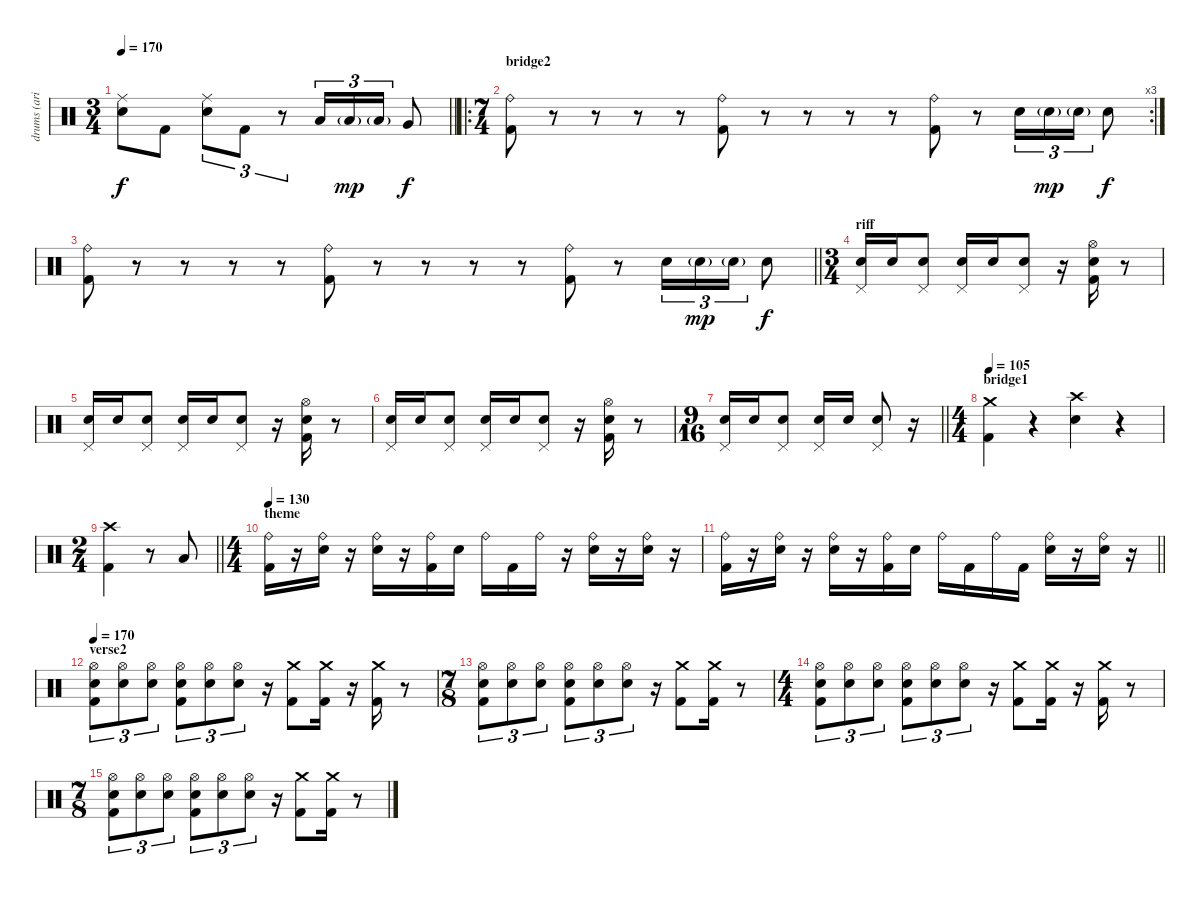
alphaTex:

\track ("drums (ari)" "drums (ari") {instrument percussion}
\staff {score}
\articulation defaults
\ts (3 4)
\tempo 170
\clef neutral
\barLineRight lightlight
\ks c
("Ride (middle)" "Electric Snare (hit)").8{dy f} "Kick (hit) 2".8 ("Ride (middle)" "Electric Snare (hit)").8{tu (3 2)} "Kick (hit) 2".8{tu (3 2)} r.8{tu (3 2)} "Low Tom (hit)".16{tu (3 2)} "Low Tom (hit)"{g}.16{tu (3 2) dy mp} "Low Tom (hit)"{g}.16{tu (3 2)} "Very Low Tom (hit)".8{dy f} |
\ro
\rc 3
\ts (7 4)
\section ("" "bridge2")
("Ride (bell)" "Kick (hit) 2").8 r.8 r.8 r.8 r.8 ("Ride (bell)" "Kick (hit) 2").8 r.8 r.8 r.8 r.8 ("Ride (bell)" "Kick (hit) 2").8 r.8 "Electric Snare (hit)".16{tu (3 2)} "Electric Snare (hit)"{g}.16{tu (3 2) dy mp} "Electric Snare (hit)"{g}.16{tu (3 2)} "Electric Snare (hit)".8{dy f} |
\barLineRight lightlight
("Ride (bell)" "Kick (hit) 2").8 r.8 r.8 r.8 r.8 ("Ride (bell)" "Kick (hit) 2").8 r.8 r.8 r.8 r.8 ("Ride (bell)" "Kick (hit) 2").8 r.8 "Electric Snare (hit)".16{tu (3 2)} "Electric Snare (hit)"{g}.16{tu (3 2) dy mp} "Electric Snare (hit)"{g}.16{tu (3 2)} "Electric Snare (hit)".8{dy f} |
\ts (3 4)
\section ("" "riff")
("Pedal Hi-Hat (hit)" "Electric Snare (hit)").16 "Electric Snare (hit)".16 ("Pedal Hi-Hat (hit)" "Electric Snare (hit)").8 ("Pedal Hi-Hat (hit)" "Electric Snare (hit)").16 "Electric Snare (hit)".16 ("Pedal Hi-Hat (hit)" "Electric Snare (hit)").8 r.16 ("Hi-Hat (open)" "Electric Snare (hit)" "Kick (hit) 2").16 r.8 |
("Pedal Hi-Hat (hit)" "Electric Snare (hit)").16 "Electric Snare (hit)".16 ("Pedal Hi-Hat (hit)" "Electric Snare (hit)").8 ("Pedal Hi-Hat (hit)" "Electric Snare (hit)").16 "Electric Snare (hit)".16 ("Pedal Hi-Hat (hit)" "Electric Snare (hit)").8 r.16 ("Hi-Hat (open)" "Electric Snare (hit)" "Kick (hit) 2").16 r.8 |
("Pedal Hi-Hat (hit)" "Electric Snare (hit)").16 "Electric Snare (hit)".16 ("Pedal Hi-Hat (hit)" "Electric Snare (hit)").8 ("Pedal Hi-Hat (hit)" "Electric Snare (hit)").16 "Electric Snare (hit)".16 ("Pedal Hi-Hat (hit)" "Electric Snare (hit)").8 r.16 ("Hi-Hat (open)" "Electric Snare (hit)" "Kick (hit) 2").16 r.8 |
\ts (9 16)
\barLineRight lightlight
("Pedal Hi-Hat (hit)" "Electric Snare (hit)").16 "Electric Snare (hit)".16 ("Pedal Hi-Hat (hit)" "Electric Snare (hit)").8 ("Pedal Hi-Hat (hit)" "Electric Snare (hit)").16 "Electric Snare (hit)".16 ("Pedal Hi-Hat (hit)" "Electric Snare (hit)").8 r.16 |
\ts (4 4)
\section ("" "bridge1")
\tempo 105
("Crash medium (hit)" "Kick (hit) 2").4 r.4 ("Crash high (hit)" "Electric Snare (hit)").4 r.4 |
\ts (2 4)
\barLineRight lightlight
("Crash high (hit)" "Kick (hit) 2").4 r.8 "Low Tom (hit)".8 |
\ts (4 4)
\section ("" "theme")
\tempo 130
("Ride (bell)" "Kick (hit) 2").16 r.16 ("Ride (bell)" "Electric Snare (hit)").16 r.16 ("Ride (bell)" "Electric Snare (hit)").16 r.16 ("Ride (bell)" "Kick (hit) 2").16 "Electric Snare (hit)".16 "Ride (bell)".16 "Kick (hit) 2".16 "Ride (bell)".16 r.16 ("Ride (bell)" "Electric Snare (hit)").16 r.16 ("Ride (bell)" "Electric Snare (hit)").16 r.16 |
\barLineRight lightlight
("Ride (bell)" "Kick (hit) 2").16 r.16 ("Ride (bell)" "Electric Snare (hit)").16 r.16 ("Ride (bell)" "Electric Snare (hit)").16 r.16 ("Ride (bell)" "Kick (hit) 2").16 "Electric Snare (hit)".16 "Ride (bell)".16 "Kick (hit) 2".16 "Ride (bell)".16 "Kick (hit) 2".16 ("Ride (bell)" "Electric Snare (hit)").16 r.16 ("Ride (bell)" "Electric Snare (hit)").16 r.16 |
\section ("" "verse2")
\tempo 170
("Hi-Hat (open)" "Electric Snare (hit)" "Kick (hit) 2").8{tu (3 2)} ("Hi-Hat (open)" "Electric Snare (hit)").8{tu (3 2)} ("Hi-Hat (open)" "Electric Snare (hit)").8{tu (3 2)} ("Hi-Hat (open)" "Electric Snare (hit)" "Kick (hit) 2").8{tu (3 2)} ("Hi-Hat (open)" "Electric Snare (hit)").8{tu (3 2)} ("Hi-Hat (open)" "Electric Snare (hit)").8{tu (3 2)} r.16 ("Crash medium (hit)" "Kick (hit) 2").8 ("Crash medium (hit)" "Kick (hit) 2").16 r.16 ("Crash medium (hit)" "Kick (hit) 2").16 r.8 |
\ts (7 8)
("Hi-Hat (open)" "Electric Snare (hit)" "Kick (hit) 2").8{tu (3 2)} ("Hi-Hat (open)" "Electric Snare (hit)").8{tu (3 2)} ("Hi-Hat (open)" "Electric Snare (hit)").8{tu (3 2)} ("Hi-Hat (open)" "Electric Snare (hit)" "Kick (hit) 2").8{tu (3 2)} ("Hi-Hat (open)" "Electric Snare (hit)").8{tu (3 2)} ("Hi-Hat (open)" "Electric Snare (hit)").8{tu (3 2)} r.16 ("Crash medium (hit)" "Kick (hit) 2").8 ("Crash medium (hit)" "Kick (hit) 2").16 r.8 |
\ts (4 4)
("Hi-Hat (open)" "Electric Snare (hit)" "Kick (hit) 2").8{tu (3 2)} ("Hi-Hat (open)" "Electric Snare (hit)").8{tu (3 2)} ("Hi-Hat (open)" "Electric Snare (hit)").8{tu (3 2)} ("Hi-Hat (open)" "Electric Snare (hit)" "Kick (hit) 2").8{tu (3 2)} ("Hi-Hat (open)" "Electric Snare (hit)").8{tu (3 2)} ("Hi-Hat (open)" "Electric Snare (hit)").8{tu (3 2)} r.16 ("Crash medium (hit)" "Kick (hit) 2").8 ("Crash medium (hit)" "Kick (hit) 2").16 r.16 ("Crash medium (hit)" "Kick (hit) 2").16 r.8 |
\ts (7 8)
("Hi-Hat (open)" "Electric Snare (hit)" "Kick (hit) 2").8{tu (3 2)} ("Hi-Hat (open)" "Electric Snare (hit)").8{tu (3 2)} ("Hi-Hat (open)" "Electric Snare (hit)").8{tu (3 2)} ("Hi-Hat (open)" "Electric Snare (hit)" "Kick (hit) 2").8{tu (3 2)} ("Hi-Hat (open)" "Electric Snare (hit)").8{tu (3 2)} ("Hi-Hat (open)" "Electric Snare (hit)").8{tu (3 2)} r.16 ("Crash medium (hit)" "Kick (hit) 2").8 ("Crash medium (hit)" "Kick (hit) 2").16 r.8
